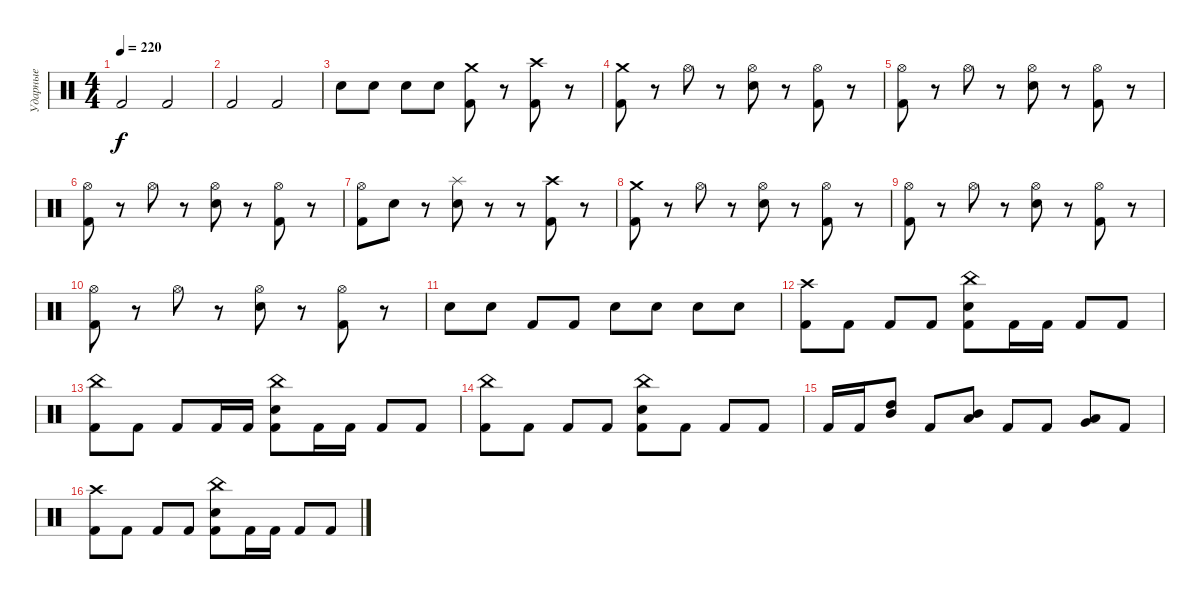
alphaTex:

\track ("Ударные" "Ударные") {instrument percussion}
\staff {score}
\articulation defaults
\ts (4 4)
\tempo 220
\clef neutral
\ks c "Kick (hit) 2".2{dy f} "Kick (hit) 2".2
|
"Kick (hit) 2".2 "Kick (hit) 2".2 |
"Electric Snare (hit)".8 "Electric Snare (hit)".8 "Electric Snare (hit)".8 "Electric Snare (hit)".8 ("Kick (hit) 2" "Crash medium (hit)").8 r.8 ("Kick (hit) 2" "Crash high (hit)").8 r.8 |
("Kick (hit) 2" "Crash medium (hit)").8 r.8 "Hi-Hat (open)".8 r.8 ("Electric Snare (hit)" "Hi-Hat (open)").8 r.8 ("Kick (hit) 2" "Hi-Hat (open)").8 r.8 |
("Kick (hit) 2" "Hi-Hat (open)").8 r.8 "Hi-Hat (open)".8 r.8 ("Electric Snare (hit)" "Hi-Hat (open)").8 r.8 ("Kick (hit) 2" "Hi-Hat (open)").8 r.8 |
("Kick (hit) 2" "Hi-Hat (open)").8 r.8 "Hi-Hat (open)".8 r.8 ("Electric Snare (hit)" "Hi-Hat (open)").8 r.8 ("Kick (hit) 2" "Hi-Hat (open)").8 r.8 |
("Kick (hit) 2" "Hi-Hat (open)").8 "Electric Snare (hit)".8 r.8 ("Electric Snare (hit)" "Splash (hit)").8 r.8 r.8 ("Kick (hit) 2" "Crash high (hit)").8 r.8 |
("Kick (hit) 2" "Crash medium (hit)").8 r.8 "Hi-Hat (open)".8 r.8 ("Electric Snare (hit)" "Hi-Hat (open)").8 r.8 ("Kick (hit) 2" "Hi-Hat (open)").8 r.8 |
("Kick (hit) 2" "Hi-Hat (open)").8 r.8 "Hi-Hat (open)".8 r.8 ("Electric Snare (hit)" "Hi-Hat (open)").8 r.8 ("Kick (hit) 2" "Hi-Hat (open)").8 r.8 |
("Kick (hit) 2" "Hi-Hat (open)").8 r.8 "Hi-Hat (open)".8 r.8 ("Electric Snare (hit)" "Hi-Hat (open)").8 r.8 ("Kick (hit) 2" "Hi-Hat (open)").8 r.8 |
"Electric Snare (hit)".8 "Electric Snare (hit)".8 "Kick (hit) 2".8 "Kick (hit) 2".8 "Electric Snare (hit)".8 "Electric Snare (hit)".8 "Electric Snare (hit)".8 "Electric Snare (hit)".8 |
("Kick (hit) 2" "Crash high (hit)").8 "Kick (hit) 2".8 "Kick (hit) 2".8 "Kick (hit) 2".8 ("Kick (hit) 2" "Electric Snare (hit)" "China (hit)").8 "Kick (hit) 2".16 "Kick (hit) 2".16 "Kick (hit) 2".8 "Kick (hit) 2".8 |
("Kick (hit) 2" "China (hit)").8 "Kick (hit) 2".8 "Kick (hit) 2".8 "Kick (hit) 2".16 "Kick (hit) 2".16 ("Kick (hit) 2" "Electric Snare (hit)" "China (hit)").8 "Kick (hit) 2".16 "Kick (hit) 2".16 "Kick (hit) 2".8 "Kick (hit) 2".8 |
("Kick (hit) 2" "China (hit)").8 "Kick (hit) 2".8 "Kick (hit) 2".8 "Kick (hit) 2".8 ("Kick (hit) 2" "Electric Snare (hit)" "China (hit)").8 "Kick (hit) 2".8 "Kick (hit) 2".8 "Kick (hit) 2".8 |
"Kick (hit) 2".16 "Kick (hit) 2".16 ("Mid Tom (hit)" "High Tom (hit)").8 "Kick (hit) 2".8 ("Low Tom (hit)" "Mid Tom (hit)").8 "Kick (hit) 2".8 "Kick (hit) 2".8 ("Low Tom (hit)" "Very Low Tom (hit)").8 "Kick (hit) 2".8 |
("Kick (hit) 2" "Crash high (hit)").8 "Kick (hit) 2".8 "Kick (hit) 2".8 "Kick (hit) 2".8 ("Kick (hit) 2" "Electric Snare (hit)" "China (hit)").8 "Kick (hit) 2".16 "Kick (hit) 2".16 "Kick (hit) 2".8 "Kick (hit) 2".8
